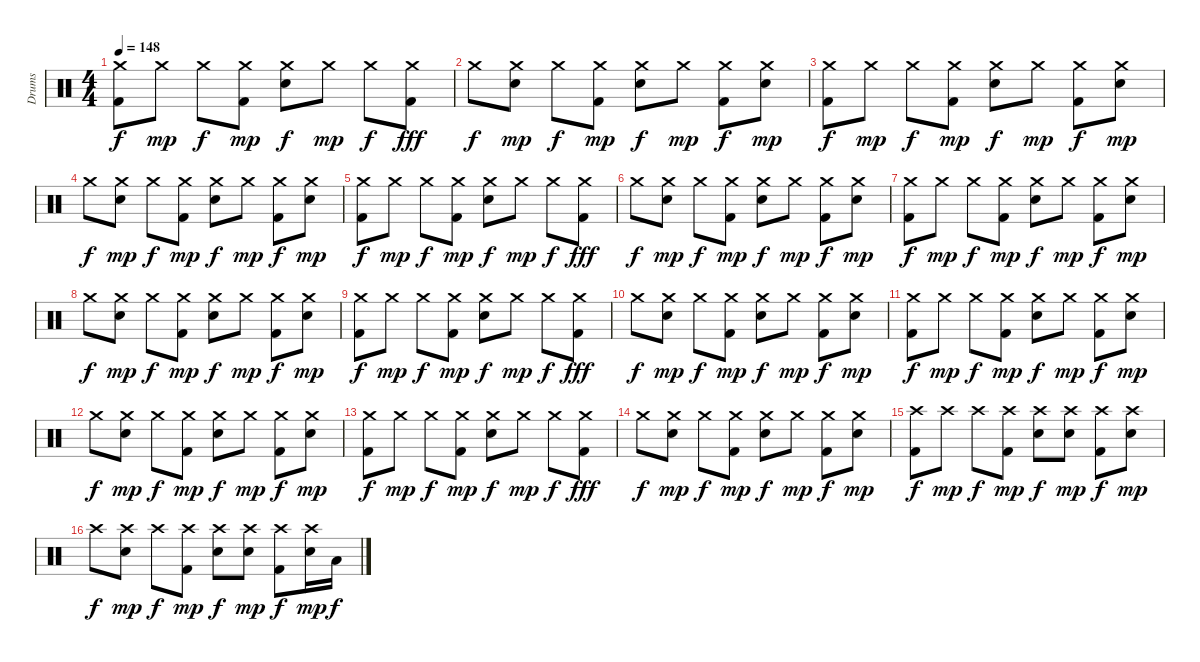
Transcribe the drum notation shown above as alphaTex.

\track ("Drums" "Drums") {instrument percussion}
\staff {score}
\articulation defaults
\ts (4 4)
\tempo 148
\clef neutral
\ks c
("Crash medium (hit)" "Kick (hit) 2").8{dy f} "Crash medium (hit)".8{dy mp} "Crash medium (hit)".8{dy f} ("Crash medium (hit)" "Kick (hit) 2").8{dy mp} ("Crash medium (hit)" "Snare (hit) 2").8{dy f} "Crash medium (hit)".8{dy mp} "Crash medium (hit)".8{dy f} ("Crash medium (hit)" "Kick (hit) 2").8{dy fff} |
"Crash medium (hit)".8{dy f} ("Crash medium (hit)" "Snare (hit) 2").8{dy mp} "Crash medium (hit)".8{dy f} ("Crash medium (hit)" "Kick (hit) 2").8{dy mp} ("Crash medium (hit)" "Snare (hit) 2").8{dy f} "Crash medium (hit)".8{dy mp} ("Crash medium (hit)" "Kick (hit) 2").8{dy f} ("Crash medium (hit)" "Snare (hit) 2").8{dy mp} |
("Crash medium (hit)" "Kick (hit) 2").8{dy f} "Crash medium (hit)".8{dy mp} "Crash medium (hit)".8{dy f} ("Crash medium (hit)" "Kick (hit) 2").8{dy mp} ("Crash medium (hit)" "Snare (hit) 2").8{dy f} "Crash medium (hit)".8{dy mp} ("Crash medium (hit)" "Kick (hit) 2").8{dy f} ("Crash medium (hit)" "Snare (hit) 2").8{dy mp} |
"Crash medium (hit)".8{dy f} ("Crash medium (hit)" "Snare (hit) 2").8{dy mp} "Crash medium (hit)".8{dy f} ("Crash medium (hit)" "Kick (hit) 2").8{dy mp} ("Crash medium (hit)" "Snare (hit) 2").8{dy f} "Crash medium (hit)".8{dy mp} ("Crash medium (hit)" "Kick (hit) 2").8{dy f} ("Crash medium (hit)" "Snare (hit) 2").8{dy mp} |
("Crash medium (hit)" "Kick (hit) 2").8{dy f} "Crash medium (hit)".8{dy mp} "Crash medium (hit)".8{dy f} ("Crash medium (hit)" "Kick (hit) 2").8{dy mp} ("Crash medium (hit)" "Snare (hit) 2").8{dy f} "Crash medium (hit)".8{dy mp} "Crash medium (hit)".8{dy f} ("Crash medium (hit)" "Kick (hit) 2").8{dy fff} |
"Crash medium (hit)".8{dy f} ("Crash medium (hit)" "Snare (hit) 2").8{dy mp} "Crash medium (hit)".8{dy f} ("Crash medium (hit)" "Kick (hit) 2").8{dy mp} ("Crash medium (hit)" "Snare (hit) 2").8{dy f} "Crash medium (hit)".8{dy mp} ("Crash medium (hit)" "Kick (hit) 2").8{dy f} ("Crash medium (hit)" "Snare (hit) 2").8{dy mp} |
("Crash medium (hit)" "Kick (hit) 2").8{dy f} "Crash medium (hit)".8{dy mp} "Crash medium (hit)".8{dy f} ("Crash medium (hit)" "Kick (hit) 2").8{dy mp} ("Crash medium (hit)" "Snare (hit) 2").8{dy f} "Crash medium (hit)".8{dy mp} ("Crash medium (hit)" "Kick (hit) 2").8{dy f} ("Crash medium (hit)" "Snare (hit) 2").8{dy mp} |
"Crash medium (hit)".8{dy f} ("Crash medium (hit)" "Snare (hit) 2").8{dy mp} "Crash medium (hit)".8{dy f} ("Crash medium (hit)" "Kick (hit) 2").8{dy mp} ("Crash medium (hit)" "Snare (hit) 2").8{dy f} "Crash medium (hit)".8{dy mp} ("Crash medium (hit)" "Kick (hit) 2").8{dy f} ("Crash medium (hit)" "Snare (hit) 2").8{dy mp} |
("Crash medium (hit)" "Kick (hit) 2").8{dy f} "Crash medium (hit)".8{dy mp} "Crash medium (hit)".8{dy f} ("Crash medium (hit)" "Kick (hit) 2").8{dy mp} ("Crash medium (hit)" "Snare (hit) 2").8{dy f} "Crash medium (hit)".8{dy mp} "Crash medium (hit)".8{dy f} ("Crash medium (hit)" "Kick (hit) 2").8{dy fff} |
"Crash medium (hit)".8{dy f} ("Crash medium (hit)" "Snare (hit) 2").8{dy mp} "Crash medium (hit)".8{dy f} ("Crash medium (hit)" "Kick (hit) 2").8{dy mp} ("Crash medium (hit)" "Snare (hit) 2").8{dy f} "Crash medium (hit)".8{dy mp} ("Crash medium (hit)" "Kick (hit) 2").8{dy f} ("Crash medium (hit)" "Snare (hit) 2").8{dy mp} |
("Crash medium (hit)" "Kick (hit) 2").8{dy f} "Crash medium (hit)".8{dy mp} "Crash medium (hit)".8{dy f} ("Crash medium (hit)" "Kick (hit) 2").8{dy mp} ("Crash medium (hit)" "Snare (hit) 2").8{dy f} "Crash medium (hit)".8{dy mp} ("Crash medium (hit)" "Kick (hit) 2").8{dy f} ("Crash medium (hit)" "Snare (hit) 2").8{dy mp} |
"Crash medium (hit)".8{dy f} ("Crash medium (hit)" "Snare (hit) 2").8{dy mp} "Crash medium (hit)".8{dy f} ("Crash medium (hit)" "Kick (hit) 2").8{dy mp} ("Crash medium (hit)" "Snare (hit) 2").8{dy f} "Crash medium (hit)".8{dy mp} ("Crash medium (hit)" "Kick (hit) 2").8{dy f} ("Crash medium (hit)" "Snare (hit) 2").8{dy mp} |
("Crash medium (hit)" "Kick (hit) 2").8{dy f} "Crash medium (hit)".8{dy mp} "Crash medium (hit)".8{dy f} ("Crash medium (hit)" "Kick (hit) 2").8{dy mp} ("Crash medium (hit)" "Snare (hit) 2").8{dy f} "Crash medium (hit)".8{dy mp} "Crash medium (hit)".8{dy f} ("Crash medium (hit)" "Kick (hit) 2").8{dy fff} |
"Crash medium (hit)".8{dy f} ("Crash medium (hit)" "Snare (hit) 2").8{dy mp} "Crash medium (hit)".8{dy f} ("Crash medium (hit)" "Kick (hit) 2").8{dy mp} ("Crash medium (hit)" "Snare (hit) 2").8{dy f} "Crash medium (hit)".8{dy mp} ("Crash medium (hit)" "Kick (hit) 2").8{dy f} ("Crash medium (hit)" "Snare (hit) 2").8{dy mp} |
("Crash high (hit)" "Kick (hit) 2").8{dy f} "Crash high (hit)".8{dy mp} "Crash high (hit)".8{dy f} ("Crash high (hit)" "Kick (hit) 2").8{dy mp} ("Crash high (hit)" "Snare (hit) 2").8{dy f} ("Crash high (hit)" "Snare (hit) 2").8{dy mp} ("Crash high (hit)" "Kick (hit) 2").8{dy f} ("Crash high (hit)" "Snare (hit) 2").8{dy mp} |
"Crash high (hit)".8{dy f} ("Crash high (hit)" "Snare (hit) 2").8{dy mp} "Crash high (hit)".8{dy f} ("Crash high (hit)" "Kick (hit) 2").8{dy mp} ("Crash high (hit)" "Snare (hit) 2").8{dy f} ("Crash high (hit)" "Snare (hit) 2").8{dy mp} ("Crash high (hit)" "Kick (hit) 2").8{dy f} ("Crash high (hit)" "Snare (hit) 2").16{dy mp} "Low Tom (hit)".16{dy f}
